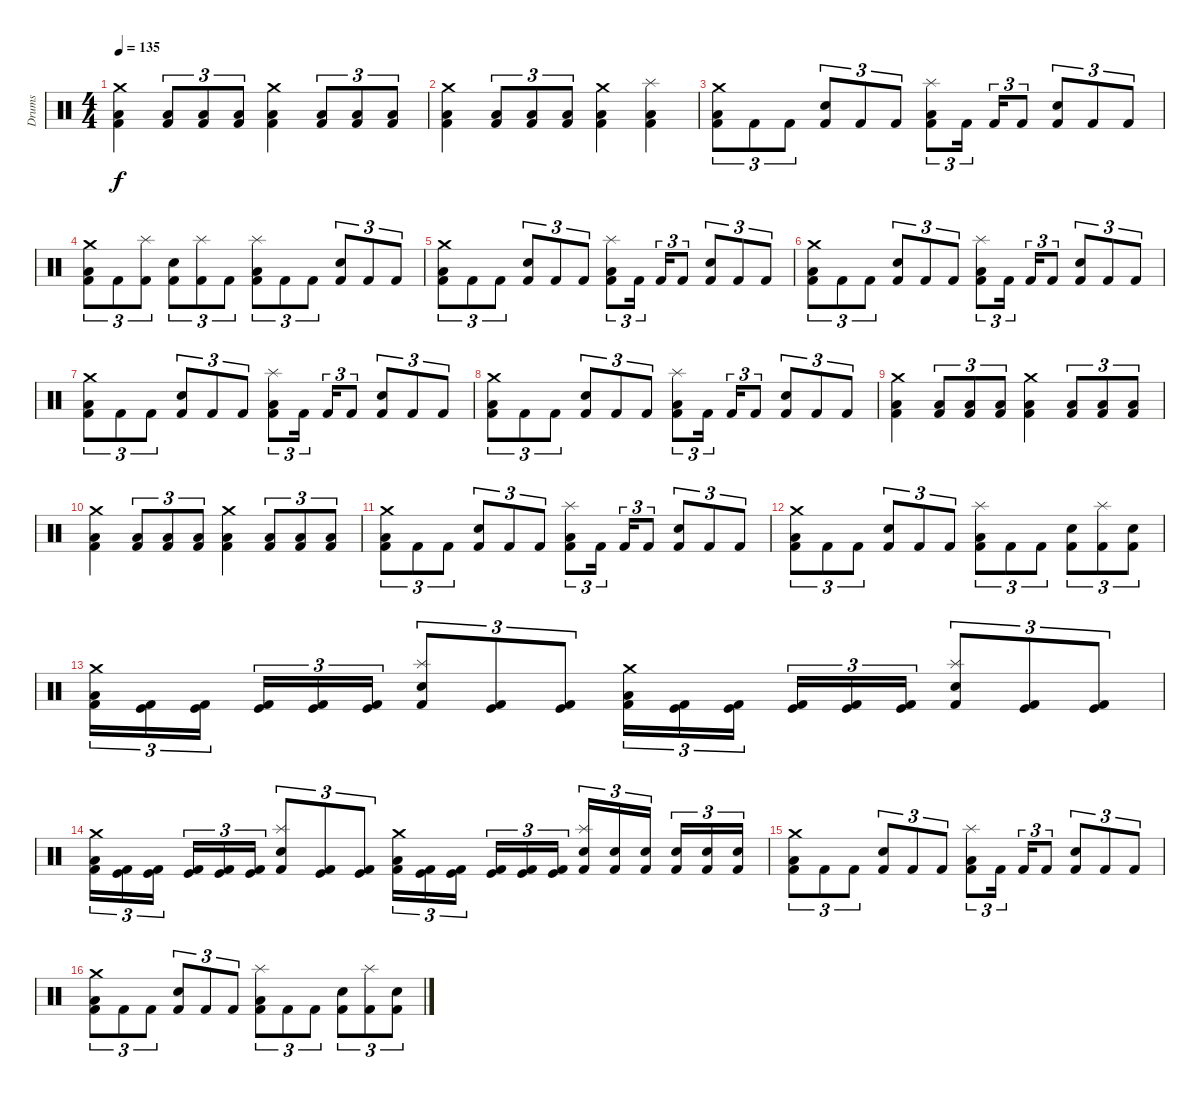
\track ("Drums" "Drums") {instrument percussion}
\staff {score}
\articulation defaults
\ts (4 4)
\tempo 135
\clef neutral
\ks c
("Crash medium (hit)" "Low Floor Tom (hit)" "Kick (hit) 2").4{dy f} ("Low Floor Tom (hit)" "Kick (hit) 2").8{tu (3 2)} ("Low Floor Tom (hit)" "Kick (hit) 2").8{tu (3 2)} ("Low Floor Tom (hit)" "Kick (hit) 2").8{tu (3 2)} ("Crash medium (hit)" "Low Floor Tom (hit)" "Kick (hit) 2").4 ("Low Floor Tom (hit)" "Kick (hit) 2").8{tu (3 2)} ("Low Floor Tom (hit)" "Kick (hit) 2").8{tu (3 2)} ("Low Floor Tom (hit)" "Kick (hit) 2").8{tu (3 2)} |
("Crash medium (hit)" "Low Floor Tom (hit)" "Kick (hit) 2").4 ("Low Floor Tom (hit)" "Kick (hit) 2").8{tu (3 2)} ("Low Floor Tom (hit)" "Kick (hit) 2").8{tu (3 2)} ("Low Floor Tom (hit)" "Kick (hit) 2").8{tu (3 2)} ("Crash medium (hit)" "Low Floor Tom (hit)" "Kick (hit) 2").4 ("Splash (hit)" "Low Floor Tom (hit)" "Kick (hit) 2").4 |
("Crash medium (hit)" "Low Floor Tom (hit)" "Kick (hit) 2").8{tu (3 2)} "Kick (hit) 2".8{tu (3 2)} "Kick (hit) 2".8{tu (3 2)} ("Snare (hit) 2" "Kick (hit) 2").8{tu (3 2)} "Kick (hit) 2".8{tu (3 2)} "Kick (hit) 2".8{tu (3 2)} ("Splash (hit)" "Low Floor Tom (hit)" "Kick (hit) 2").8{tu (3 2)} "Kick (hit) 2".16{tu (3 2)} "Kick (hit) 2".16{tu (3 2)} "Kick (hit) 2".8{tu (3 2)} ("Snare (hit) 2" "Kick (hit) 2").8{tu (3 2)} "Kick (hit) 2".8{tu (3 2)} "Kick (hit) 2".8{tu (3 2)} |
("Crash medium (hit)" "Low Floor Tom (hit)" "Kick (hit) 2").8{tu (3 2)} "Kick (hit) 2".8{tu (3 2)} ("Splash (hit)" "Kick (hit) 2").8{tu (3 2)} ("Snare (hit) 2" "Kick (hit) 2").8{tu (3 2)} ("Splash (hit)" "Kick (hit) 2").8{tu (3 2)} "Kick (hit) 2".8{tu (3 2)} ("Splash (hit)" "Low Floor Tom (hit)" "Kick (hit) 2").8{tu (3 2)} "Kick (hit) 2".8{tu (3 2)} "Kick (hit) 2".8{tu (3 2)} ("Snare (hit) 2" "Kick (hit) 2").8{tu (3 2)} "Kick (hit) 2".8{tu (3 2)} "Kick (hit) 2".8{tu (3 2)} |
("Crash medium (hit)" "Low Floor Tom (hit)" "Kick (hit) 2").8{tu (3 2)} "Kick (hit) 2".8{tu (3 2)} "Kick (hit) 2".8{tu (3 2)} ("Snare (hit) 2" "Kick (hit) 2").8{tu (3 2)} "Kick (hit) 2".8{tu (3 2)} "Kick (hit) 2".8{tu (3 2)} ("Splash (hit)" "Low Floor Tom (hit)" "Kick (hit) 2").8{tu (3 2)} "Kick (hit) 2".16{tu (3 2)} "Kick (hit) 2".16{tu (3 2)} "Kick (hit) 2".8{tu (3 2)} ("Snare (hit) 2" "Kick (hit) 2").8{tu (3 2)} "Kick (hit) 2".8{tu (3 2)} "Kick (hit) 2".8{tu (3 2)} |
("Crash medium (hit)" "Low Floor Tom (hit)" "Kick (hit) 2").8{tu (3 2)} "Kick (hit) 2".8{tu (3 2)} "Kick (hit) 2".8{tu (3 2)} ("Snare (hit) 2" "Kick (hit) 2").8{tu (3 2)} "Kick (hit) 2".8{tu (3 2)} "Kick (hit) 2".8{tu (3 2)} ("Splash (hit)" "Low Floor Tom (hit)" "Kick (hit) 2").8{tu (3 2)} "Kick (hit) 2".16{tu (3 2)} "Kick (hit) 2".16{tu (3 2)} "Kick (hit) 2".8{tu (3 2)} ("Snare (hit) 2" "Kick (hit) 2").8{tu (3 2)} "Kick (hit) 2".8{tu (3 2)} "Kick (hit) 2".8{tu (3 2)} |
("Crash medium (hit)" "Low Floor Tom (hit)" "Kick (hit) 2").8{tu (3 2)} "Kick (hit) 2".8{tu (3 2)} "Kick (hit) 2".8{tu (3 2)} ("Snare (hit) 2" "Kick (hit) 2").8{tu (3 2)} "Kick (hit) 2".8{tu (3 2)} "Kick (hit) 2".8{tu (3 2)} ("Splash (hit)" "Low Floor Tom (hit)" "Kick (hit) 2").8{tu (3 2)} "Kick (hit) 2".16{tu (3 2)} "Kick (hit) 2".16{tu (3 2)} "Kick (hit) 2".8{tu (3 2)} ("Snare (hit) 2" "Kick (hit) 2").8{tu (3 2)} "Kick (hit) 2".8{tu (3 2)} "Kick (hit) 2".8{tu (3 2)} |
("Crash medium (hit)" "Low Floor Tom (hit)" "Kick (hit) 2").8{tu (3 2)} "Kick (hit) 2".8{tu (3 2)} "Kick (hit) 2".8{tu (3 2)} ("Snare (hit) 2" "Kick (hit) 2").8{tu (3 2)} "Kick (hit) 2".8{tu (3 2)} "Kick (hit) 2".8{tu (3 2)} ("Splash (hit)" "Low Floor Tom (hit)" "Kick (hit) 2").8{tu (3 2)} "Kick (hit) 2".16{tu (3 2)} "Kick (hit) 2".16{tu (3 2)} "Kick (hit) 2".8{tu (3 2)} ("Snare (hit) 2" "Kick (hit) 2").8{tu (3 2)} "Kick (hit) 2".8{tu (3 2)} "Kick (hit) 2".8{tu (3 2)} |
("Crash medium (hit)" "Low Floor Tom (hit)" "Kick (hit) 2").4 ("Low Floor Tom (hit)" "Kick (hit) 2").8{tu (3 2)} ("Low Floor Tom (hit)" "Kick (hit) 2").8{tu (3 2)} ("Low Floor Tom (hit)" "Kick (hit) 2").8{tu (3 2)} ("Crash medium (hit)" "Low Floor Tom (hit)" "Kick (hit) 2").4 ("Low Floor Tom (hit)" "Kick (hit) 2").8{tu (3 2)} ("Low Floor Tom (hit)" "Kick (hit) 2").8{tu (3 2)} ("Low Floor Tom (hit)" "Kick (hit) 2").8{tu (3 2)} |
("Crash medium (hit)" "Low Floor Tom (hit)" "Kick (hit) 2").4 ("Low Floor Tom (hit)" "Kick (hit) 2").8{tu (3 2)} ("Low Floor Tom (hit)" "Kick (hit) 2").8{tu (3 2)} ("Low Floor Tom (hit)" "Kick (hit) 2").8{tu (3 2)} ("Crash medium (hit)" "Low Floor Tom (hit)" "Kick (hit) 2").4 ("Low Floor Tom (hit)" "Kick (hit) 2").8{tu (3 2)} ("Low Floor Tom (hit)" "Kick (hit) 2").8{tu (3 2)} ("Low Floor Tom (hit)" "Kick (hit) 2").8{tu (3 2)} |
("Crash medium (hit)" "Low Floor Tom (hit)" "Kick (hit) 2").8{tu (3 2)} "Kick (hit) 2".8{tu (3 2)} "Kick (hit) 2".8{tu (3 2)} ("Snare (hit) 2" "Kick (hit) 2").8{tu (3 2)} "Kick (hit) 2".8{tu (3 2)} "Kick (hit) 2".8{tu (3 2)} ("Splash (hit)" "Low Floor Tom (hit)" "Kick (hit) 2").8{tu (3 2)} "Kick (hit) 2".16{tu (3 2)} "Kick (hit) 2".16{tu (3 2)} "Kick (hit) 2".8{tu (3 2)} ("Snare (hit) 2" "Kick (hit) 2").8{tu (3 2)} "Kick (hit) 2".8{tu (3 2)} "Kick (hit) 2".8{tu (3 2)} |
("Crash medium (hit)" "Low Floor Tom (hit)" "Kick (hit) 2").8{tu (3 2)} "Kick (hit) 2".8{tu (3 2)} "Kick (hit) 2".8{tu (3 2)} ("Snare (hit) 2" "Kick (hit) 2").8{tu (3 2)} "Kick (hit) 2".8{tu (3 2)} "Kick (hit) 2".8{tu (3 2)} ("Splash (hit)" "Low Floor Tom (hit)" "Kick (hit) 2").8{tu (3 2)} "Kick (hit) 2".8{tu (3 2)} "Kick (hit) 2".8{tu (3 2)} ("Snare (hit) 2" "Kick (hit) 2").8{tu (3 2)} ("Splash (hit)" "Kick (hit) 2").8{tu (3 2)} ("Snare (hit) 2" "Kick (hit) 2").8{tu (3 2)} |
("Crash medium (hit)" "Low Floor Tom (hit)" "Kick (hit) 2").16{tu (3 2)} ("Kick (hit)" "Kick (hit) 2").16{tu (3 2)} ("Kick (hit)" "Kick (hit) 2").16{tu (3 2)} ("Kick (hit)" "Kick (hit) 2").16{tu (3 2)} ("Kick (hit)" "Kick (hit) 2").16{tu (3 2)} ("Kick (hit)" "Kick (hit) 2").16{tu (3 2)} ("Splash (hit)" "Snare (hit) 2" "Kick (hit) 2").8{tu (3 2)} ("Kick (hit)" "Kick (hit) 2").8{tu (3 2)} ("Kick (hit)" "Kick (hit) 2").8{tu (3 2)} ("Crash medium (hit)" "Low Floor Tom (hit)" "Kick (hit) 2").16{tu (3 2)} ("Kick (hit)" "Kick (hit) 2").16{tu (3 2)} ("Kick (hit)" "Kick (hit) 2").16{tu (3 2)} ("Kick (hit)" "Kick (hit) 2").16{tu (3 2)} ("Kick (hit)" "Kick (hit) 2").16{tu (3 2)} ("Kick (hit)" "Kick (hit) 2").16{tu (3 2)} ("Splash (hit)" "Snare (hit) 2" "Kick (hit) 2").8{tu (3 2)} ("Kick (hit)" "Kick (hit) 2").8{tu (3 2)} ("Kick (hit)" "Kick (hit) 2").8{tu (3 2)} |
("Crash medium (hit)" "Low Floor Tom (hit)" "Kick (hit) 2").16{tu (3 2)} ("Kick (hit)" "Kick (hit) 2").16{tu (3 2)} ("Kick (hit)" "Kick (hit) 2").16{tu (3 2)} ("Kick (hit)" "Kick (hit) 2").16{tu (3 2)} ("Kick (hit)" "Kick (hit) 2").16{tu (3 2)} ("Kick (hit)" "Kick (hit) 2").16{tu (3 2)} ("Splash (hit)" "Snare (hit) 2" "Kick (hit) 2").8{tu (3 2)} ("Kick (hit)" "Kick (hit) 2").8{tu (3 2)} ("Kick (hit)" "Kick (hit) 2").8{tu (3 2)} ("Crash medium (hit)" "Low Floor Tom (hit)" "Kick (hit) 2").16{tu (3 2)} ("Kick (hit)" "Kick (hit) 2").16{tu (3 2)} ("Kick (hit)" "Kick (hit) 2").16{tu (3 2)} ("Kick (hit)" "Kick (hit) 2").16{tu (3 2)} ("Kick (hit)" "Kick (hit) 2").16{tu (3 2)} ("Kick (hit)" "Kick (hit) 2").16{tu (3 2)} ("Splash (hit)" "Snare (hit) 2" "Kick (hit) 2").16{tu (3 2)} ("Snare (hit) 2" "Kick (hit) 2").16{tu (3 2)} ("Snare (hit) 2" "Kick (hit) 2").16{tu (3 2)} ("Electric Snare (hit)" "Kick (hit) 2").16{tu (3 2)} ("Electric Snare (hit)" "Kick (hit) 2").16{tu (3 2)} ("Electric Snare (hit)" "Kick (hit) 2").16{tu (3 2)} |
("Crash medium (hit)" "Low Floor Tom (hit)" "Kick (hit) 2").8{tu (3 2)} "Kick (hit) 2".8{tu (3 2)} "Kick (hit) 2".8{tu (3 2)} ("Snare (hit) 2" "Kick (hit) 2").8{tu (3 2)} "Kick (hit) 2".8{tu (3 2)} "Kick (hit) 2".8{tu (3 2)} ("Splash (hit)" "Low Floor Tom (hit)" "Kick (hit) 2").8{tu (3 2)} "Kick (hit) 2".16{tu (3 2)} "Kick (hit) 2".16{tu (3 2)} "Kick (hit) 2".8{tu (3 2)} ("Snare (hit) 2" "Kick (hit) 2").8{tu (3 2)} "Kick (hit) 2".8{tu (3 2)} "Kick (hit) 2".8{tu (3 2)} |
("Crash medium (hit)" "Low Floor Tom (hit)" "Kick (hit) 2").8{tu (3 2)} "Kick (hit) 2".8{tu (3 2)} "Kick (hit) 2".8{tu (3 2)} ("Snare (hit) 2" "Kick (hit) 2").8{tu (3 2)} "Kick (hit) 2".8{tu (3 2)} "Kick (hit) 2".8{tu (3 2)} ("Splash (hit)" "Low Floor Tom (hit)" "Kick (hit) 2").8{tu (3 2)} "Kick (hit) 2".8{tu (3 2)} "Kick (hit) 2".8{tu (3 2)} ("Snare (hit) 2" "Kick (hit) 2").8{tu (3 2)} ("Splash (hit)" "Kick (hit) 2").8{tu (3 2)} ("Snare (hit) 2" "Kick (hit) 2").8{tu (3 2)}
